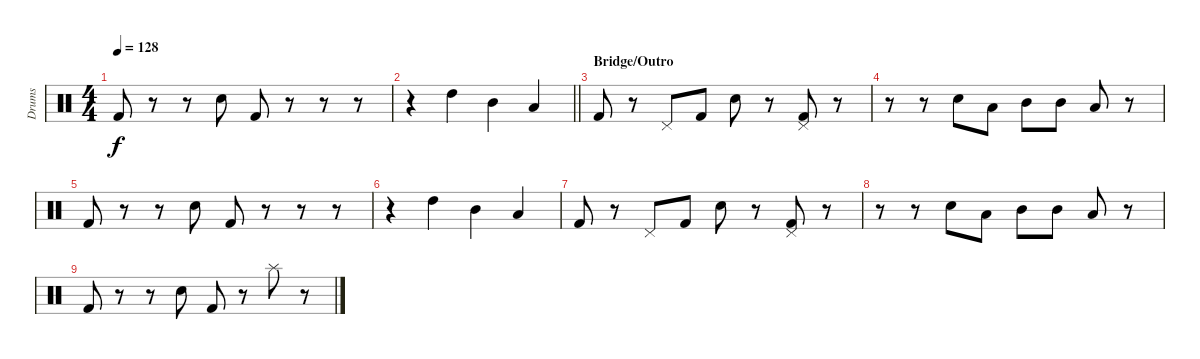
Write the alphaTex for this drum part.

\track ("Drums" "Drums") {instrument percussion}
\staff {score}
\articulation defaults
\ts (4 4)
\tempo 128
\clef neutral
\ks c "Kick (hit) 2".8{dy f}
r.8 r.8 "Electric Snare (hit)".8 "Kick (hit) 2".8 r.8 r.8 r.8 |
\barLineRight lightlight
r.4 "High Tom (hit)".4 "Mid Tom (hit)".4 "Low Tom (hit)".4 |
\section ("" "Bridge/Outro")
"Kick (hit) 2".8 r.8 "Pedal Hi-Hat (hit)".8 "Kick (hit) 2".8 "Electric Snare (hit)".8 r.8 ("Pedal Hi-Hat (hit)" "Kick (hit) 2").8 r.8 |
r.8 r.8 "Electric Snare (hit)".8 "Low Tom (hit)".8 "Mid Tom (hit)".8 "Mid Tom (hit)".8 "Low Tom (hit)".8 r.8 |
"Kick (hit) 2".8 r.8 r.8 "Electric Snare (hit)".8 "Kick (hit) 2".8 r.8 r.8 r.8 |
r.4 "High Tom (hit)".4 "Mid Tom (hit)".4 "Low Tom (hit)".4 |
"Kick (hit) 2".8 r.8 "Pedal Hi-Hat (hit)".8 "Kick (hit) 2".8 "Electric Snare (hit)".8 r.8 ("Pedal Hi-Hat (hit)" "Kick (hit) 2").8 r.8 |
r.8 r.8 "Electric Snare (hit)".8 "Low Tom (hit)".8 "Mid Tom (hit)".8 "Mid Tom (hit)".8 "Low Tom (hit)".8 r.8 |
"Kick (hit) 2".8 r.8 r.8 "Electric Snare (hit)".8 "Kick (hit) 2".8 r.8 "Splash (hit)".8 r.8
